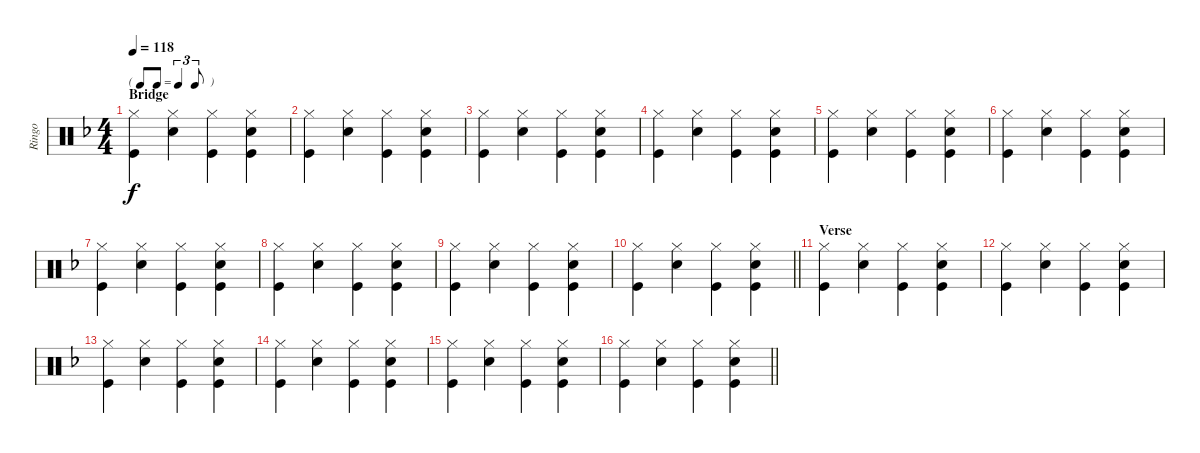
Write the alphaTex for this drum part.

\track ("Ringo" "Ringo") {instrument percussion}
\staff {score}
\articulation defaults
\ts (4 4)
\tf triplet8th
\section ("" "Bridge")
\tempo 118
\clef neutral
\ks f
("Hi-Hat (closed)" "Kick (hit)").4{dy f} ("Hi-Hat (closed)" "Snare (hit) 2").4 ("Hi-Hat (closed)" "Kick (hit)").4 ("Hi-Hat (closed)" "Snare (hit) 2" "Kick (hit)").4 |
("Hi-Hat (closed)" "Kick (hit)").4 ("Hi-Hat (closed)" "Snare (hit) 2").4 ("Hi-Hat (closed)" "Kick (hit)").4 ("Hi-Hat (closed)" "Snare (hit) 2" "Kick (hit)").4 |
("Hi-Hat (closed)" "Kick (hit)").4 ("Hi-Hat (closed)" "Snare (hit) 2").4 ("Hi-Hat (closed)" "Kick (hit)").4 ("Hi-Hat (closed)" "Snare (hit) 2" "Kick (hit)").4 |
("Hi-Hat (closed)" "Kick (hit)").4 ("Hi-Hat (closed)" "Snare (hit) 2").4 ("Hi-Hat (closed)" "Kick (hit)").4 ("Hi-Hat (closed)" "Snare (hit) 2" "Kick (hit)").4 |
("Hi-Hat (closed)" "Kick (hit)").4 ("Hi-Hat (closed)" "Snare (hit) 2").4 ("Hi-Hat (closed)" "Kick (hit)").4 ("Hi-Hat (closed)" "Snare (hit) 2" "Kick (hit)").4 |
("Hi-Hat (closed)" "Kick (hit)").4 ("Hi-Hat (closed)" "Snare (hit) 2").4 ("Hi-Hat (closed)" "Kick (hit)").4 ("Hi-Hat (closed)" "Snare (hit) 2" "Kick (hit)").4 |
("Hi-Hat (closed)" "Kick (hit)").4 ("Hi-Hat (closed)" "Snare (hit) 2").4 ("Hi-Hat (closed)" "Kick (hit)").4 ("Hi-Hat (closed)" "Snare (hit) 2" "Kick (hit)").4 |
("Hi-Hat (closed)" "Kick (hit)").4 ("Hi-Hat (closed)" "Snare (hit) 2").4 ("Hi-Hat (closed)" "Kick (hit)").4 ("Hi-Hat (closed)" "Snare (hit) 2" "Kick (hit)").4 |
("Hi-Hat (closed)" "Kick (hit)").4 ("Hi-Hat (closed)" "Snare (hit) 2").4 ("Hi-Hat (closed)" "Kick (hit)").4 ("Hi-Hat (closed)" "Snare (hit) 2" "Kick (hit)").4 |
\barLineRight lightlight
("Hi-Hat (closed)" "Kick (hit)").4 ("Hi-Hat (closed)" "Snare (hit) 2").4 ("Hi-Hat (closed)" "Kick (hit)").4 ("Hi-Hat (closed)" "Snare (hit) 2" "Kick (hit)").4 |
\section ("" "Verse")
("Hi-Hat (closed)" "Kick (hit)").4 ("Hi-Hat (closed)" "Snare (hit) 2").4 ("Hi-Hat (closed)" "Kick (hit)").4 ("Hi-Hat (closed)" "Snare (hit) 2" "Kick (hit)").4 |
("Hi-Hat (closed)" "Kick (hit)").4 ("Hi-Hat (closed)" "Snare (hit) 2").4 ("Hi-Hat (closed)" "Kick (hit)").4 ("Hi-Hat (closed)" "Snare (hit) 2" "Kick (hit)").4 |
("Hi-Hat (closed)" "Kick (hit)").4 ("Hi-Hat (closed)" "Snare (hit) 2").4 ("Hi-Hat (closed)" "Kick (hit)").4 ("Hi-Hat (closed)" "Snare (hit) 2" "Kick (hit)").4 |
("Hi-Hat (closed)" "Kick (hit)").4 ("Hi-Hat (closed)" "Snare (hit) 2").4 ("Hi-Hat (closed)" "Kick (hit)").4 ("Hi-Hat (closed)" "Snare (hit) 2" "Kick (hit)").4 |
("Hi-Hat (closed)" "Kick (hit)").4 ("Hi-Hat (closed)" "Snare (hit) 2").4 ("Hi-Hat (closed)" "Kick (hit)").4 ("Hi-Hat (closed)" "Snare (hit) 2" "Kick (hit)").4 |
\barLineRight lightlight
("Hi-Hat (closed)" "Kick (hit)").4 ("Hi-Hat (closed)" "Snare (hit) 2").4 ("Hi-Hat (closed)" "Kick (hit)").4 ("Hi-Hat (closed)" "Snare (hit) 2" "Kick (hit)").4
